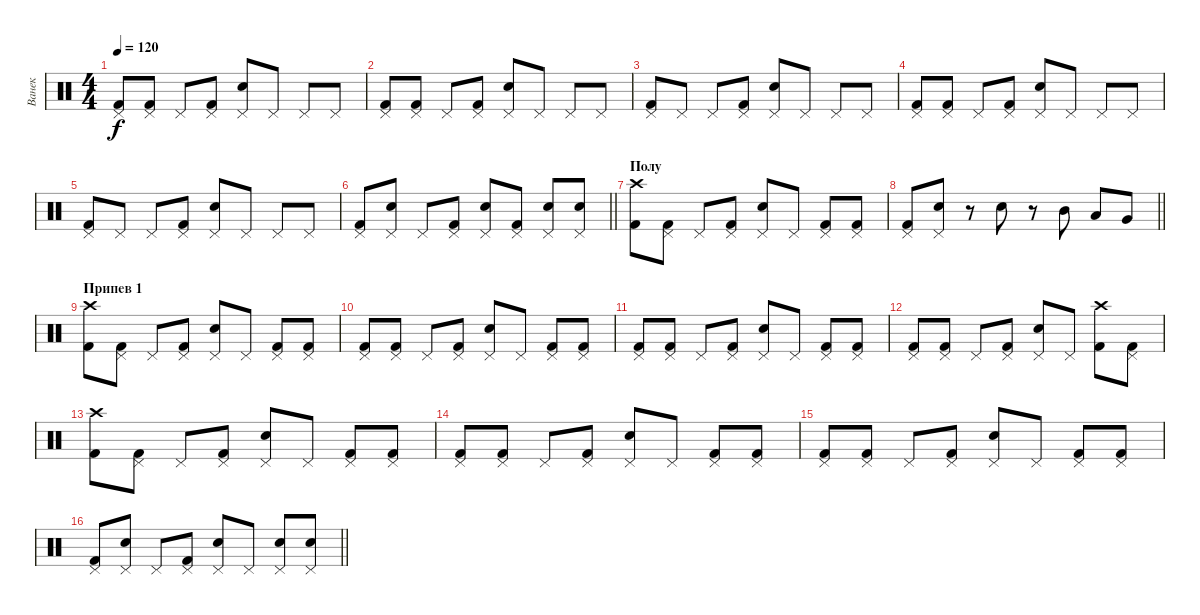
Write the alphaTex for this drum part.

\track ("Ванек" "Ванек") {instrument percussion}
\staff {score}
\articulation defaults
\ts (4 4)
\tempo 120
\clef neutral
\ks c
("Kick (hit) 2" "Pedal Hi-Hat (hit)").8{dy f} ("Kick (hit) 2" "Pedal Hi-Hat (hit)").8 "Pedal Hi-Hat (hit)".8 ("Kick (hit) 2" "Pedal Hi-Hat (hit)").8 ("Electric Snare (hit)" "Pedal Hi-Hat (hit)").8 "Pedal Hi-Hat (hit)".8 "Pedal Hi-Hat (hit)".8 "Pedal Hi-Hat (hit)".8 |
("Kick (hit) 2" "Pedal Hi-Hat (hit)").8 ("Kick (hit) 2" "Pedal Hi-Hat (hit)").8 "Pedal Hi-Hat (hit)".8 ("Kick (hit) 2" "Pedal Hi-Hat (hit)").8 ("Electric Snare (hit)" "Pedal Hi-Hat (hit)").8 "Pedal Hi-Hat (hit)".8 "Pedal Hi-Hat (hit)".8 "Pedal Hi-Hat (hit)".8 |
("Kick (hit) 2" "Pedal Hi-Hat (hit)").8 "Pedal Hi-Hat (hit)".8 "Pedal Hi-Hat (hit)".8 ("Kick (hit) 2" "Pedal Hi-Hat (hit)").8 ("Electric Snare (hit)" "Pedal Hi-Hat (hit)").8 "Pedal Hi-Hat (hit)".8 "Pedal Hi-Hat (hit)".8 "Pedal Hi-Hat (hit)".8 |
("Kick (hit) 2" "Pedal Hi-Hat (hit)").8 ("Kick (hit) 2" "Pedal Hi-Hat (hit)").8 "Pedal Hi-Hat (hit)".8 ("Kick (hit) 2" "Pedal Hi-Hat (hit)").8 ("Electric Snare (hit)" "Pedal Hi-Hat (hit)").8 "Pedal Hi-Hat (hit)".8 "Pedal Hi-Hat (hit)".8 "Pedal Hi-Hat (hit)".8 |
("Kick (hit) 2" "Pedal Hi-Hat (hit)").8 "Pedal Hi-Hat (hit)".8 "Pedal Hi-Hat (hit)".8 ("Kick (hit) 2" "Pedal Hi-Hat (hit)").8 ("Electric Snare (hit)" "Pedal Hi-Hat (hit)").8 "Pedal Hi-Hat (hit)".8 "Pedal Hi-Hat (hit)".8 "Pedal Hi-Hat (hit)".8 |
\barLineRight lightlight
("Kick (hit) 2" "Pedal Hi-Hat (hit)").8 ("Electric Snare (hit)" "Pedal Hi-Hat (hit)").8 "Pedal Hi-Hat (hit)".8 ("Kick (hit) 2" "Pedal Hi-Hat (hit)").8 ("Electric Snare (hit)" "Pedal Hi-Hat (hit)").8 ("Kick (hit) 2" "Pedal Hi-Hat (hit)").8 ("Electric Snare (hit)" "Pedal Hi-Hat (hit)").8 ("Electric Snare (hit)" "Pedal Hi-Hat (hit)").8 |
\section ("" "Полу")
("Kick (hit) 2" "Crash high (hit)").8 ("Kick (hit) 2" "Pedal Hi-Hat (hit)").8 "Pedal Hi-Hat (hit)".8 ("Kick (hit) 2" "Pedal Hi-Hat (hit)").8 ("Electric Snare (hit)" "Pedal Hi-Hat (hit)").8 "Pedal Hi-Hat (hit)".8 ("Kick (hit) 2" "Pedal Hi-Hat (hit)").8 ("Kick (hit) 2" "Pedal Hi-Hat (hit)").8 |
\barLineRight lightlight
("Kick (hit) 2" "Pedal Hi-Hat (hit)").8 ("Electric Snare (hit)" "Pedal Hi-Hat (hit)").8 r.8 "Electric Snare (hit)".8 r.8 "Mid Tom (hit)".8 "Low Tom (hit)".8 "Very Low Tom (hit)".8 |
\section ("" "Припев 1")
("Kick (hit) 2" "Crash high (hit)").8 ("Kick (hit) 2" "Pedal Hi-Hat (hit)").8 "Pedal Hi-Hat (hit)".8 ("Kick (hit) 2" "Pedal Hi-Hat (hit)").8 ("Electric Snare (hit)" "Pedal Hi-Hat (hit)").8 "Pedal Hi-Hat (hit)".8 ("Kick (hit) 2" "Pedal Hi-Hat (hit)").8 ("Kick (hit) 2" "Pedal Hi-Hat (hit)").8 |
("Kick (hit) 2" "Pedal Hi-Hat (hit)").8 ("Kick (hit) 2" "Pedal Hi-Hat (hit)").8 "Pedal Hi-Hat (hit)".8 ("Kick (hit) 2" "Pedal Hi-Hat (hit)").8 ("Electric Snare (hit)" "Pedal Hi-Hat (hit)").8 "Pedal Hi-Hat (hit)".8 ("Kick (hit) 2" "Pedal Hi-Hat (hit)").8 ("Kick (hit) 2" "Pedal Hi-Hat (hit)").8 |
("Kick (hit) 2" "Pedal Hi-Hat (hit)").8 ("Kick (hit) 2" "Pedal Hi-Hat (hit)").8 "Pedal Hi-Hat (hit)".8 ("Kick (hit) 2" "Pedal Hi-Hat (hit)").8 ("Electric Snare (hit)" "Pedal Hi-Hat (hit)").8 "Pedal Hi-Hat (hit)".8 ("Kick (hit) 2" "Pedal Hi-Hat (hit)").8 ("Kick (hit) 2" "Pedal Hi-Hat (hit)").8 |
("Kick (hit) 2" "Pedal Hi-Hat (hit)").8 ("Kick (hit) 2" "Pedal Hi-Hat (hit)").8 "Pedal Hi-Hat (hit)".8 ("Kick (hit) 2" "Pedal Hi-Hat (hit)").8 ("Electric Snare (hit)" "Pedal Hi-Hat (hit)").8 "Pedal Hi-Hat (hit)".8 ("Kick (hit) 2" "Crash high (hit)").8 ("Kick (hit) 2" "Pedal Hi-Hat (hit)").8 |
("Kick (hit) 2" "Crash high (hit)").8 ("Kick (hit) 2" "Pedal Hi-Hat (hit)").8 "Pedal Hi-Hat (hit)".8 ("Kick (hit) 2" "Pedal Hi-Hat (hit)").8 ("Electric Snare (hit)" "Pedal Hi-Hat (hit)").8 "Pedal Hi-Hat (hit)".8 ("Kick (hit) 2" "Pedal Hi-Hat (hit)").8 ("Kick (hit) 2" "Pedal Hi-Hat (hit)").8 |
("Kick (hit) 2" "Pedal Hi-Hat (hit)").8 ("Kick (hit) 2" "Pedal Hi-Hat (hit)").8 "Pedal Hi-Hat (hit)".8 ("Kick (hit) 2" "Pedal Hi-Hat (hit)").8 ("Electric Snare (hit)" "Pedal Hi-Hat (hit)").8 "Pedal Hi-Hat (hit)".8 ("Kick (hit) 2" "Pedal Hi-Hat (hit)").8 ("Kick (hit) 2" "Pedal Hi-Hat (hit)").8 |
("Kick (hit) 2" "Pedal Hi-Hat (hit)").8 ("Kick (hit) 2" "Pedal Hi-Hat (hit)").8 "Pedal Hi-Hat (hit)".8 ("Kick (hit) 2" "Pedal Hi-Hat (hit)").8 ("Electric Snare (hit)" "Pedal Hi-Hat (hit)").8 "Pedal Hi-Hat (hit)".8 ("Kick (hit) 2" "Pedal Hi-Hat (hit)").8 ("Kick (hit) 2" "Pedal Hi-Hat (hit)").8 |
\barLineRight lightlight
("Kick (hit) 2" "Pedal Hi-Hat (hit)").8 ("Electric Snare (hit)" "Pedal Hi-Hat (hit)").8 "Pedal Hi-Hat (hit)".8 ("Kick (hit) 2" "Pedal Hi-Hat (hit)").8 ("Electric Snare (hit)" "Pedal Hi-Hat (hit)").8 "Pedal Hi-Hat (hit)".8 ("Electric Snare (hit)" "Pedal Hi-Hat (hit)").8 ("Electric Snare (hit)" "Pedal Hi-Hat (hit)").8
